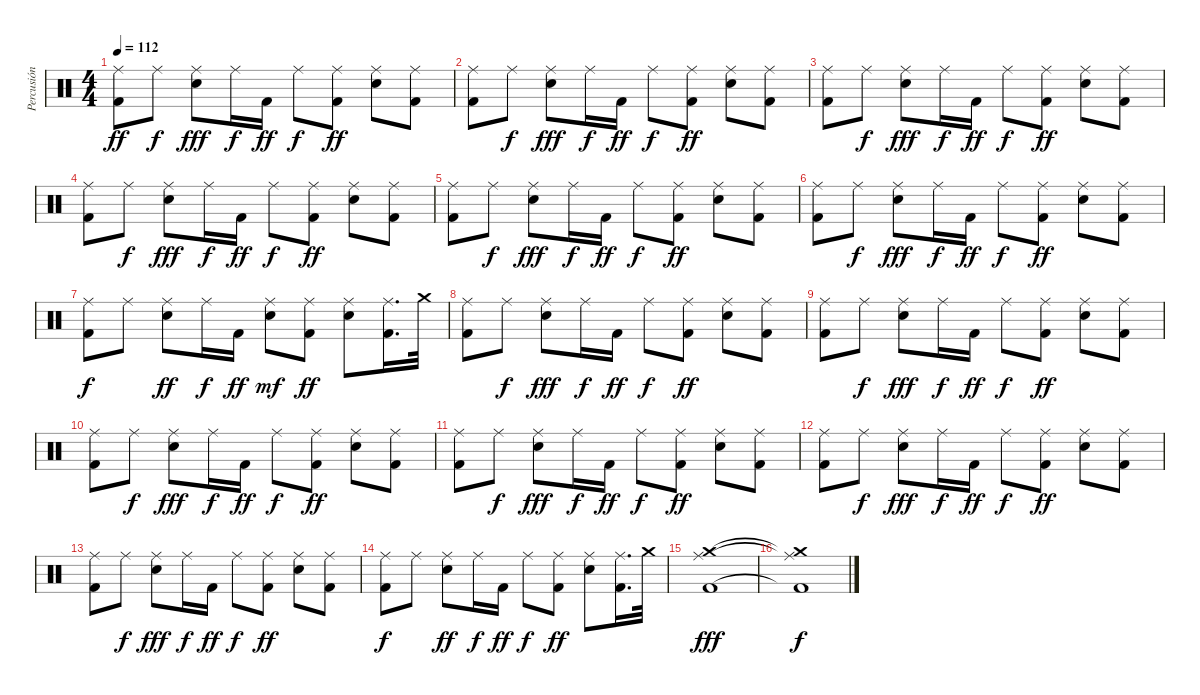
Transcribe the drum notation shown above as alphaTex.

\track ("Percusión" "Percusión") {instrument percussion}
\staff {score}
\articulation defaults
\ts (4 4)
\tempo 112
\clef neutral
\ks c
("Kick (hit) 2" "Ride (middle)").8{dy ff} "Ride (middle)".8{dy f} ("Snare (hit) 2" "Ride (middle)").8{dy fff} "Ride (middle)".16{dy f} "Kick (hit) 2".16{dy ff} "Ride (middle)".8{dy f} ("Kick (hit) 2" "Ride (middle)").8{dy ff} ("Snare (hit) 2" "Ride (middle)").8 ("Kick (hit) 2" "Ride (middle)").8 |
("Kick (hit) 2" "Ride (middle)").8 "Ride (middle)".8{dy f} ("Snare (hit) 2" "Ride (middle)").8{dy fff} "Ride (middle)".16{dy f} "Kick (hit) 2".16{dy ff} "Ride (middle)".8{dy f} ("Kick (hit) 2" "Ride (middle)").8{dy ff} ("Snare (hit) 2" "Ride (middle)").8 ("Kick (hit) 2" "Ride (middle)").8 |
("Kick (hit) 2" "Ride (middle)").8 "Ride (middle)".8{dy f} ("Snare (hit) 2" "Ride (middle)").8{dy fff} "Ride (middle)".16{dy f} "Kick (hit) 2".16{dy ff} "Ride (middle)".8{dy f} ("Kick (hit) 2" "Ride (middle)").8{dy ff} ("Snare (hit) 2" "Ride (middle)").8 ("Kick (hit) 2" "Ride (middle)").8 |
("Kick (hit) 2" "Ride (middle)").8 "Ride (middle)".8{dy f} ("Snare (hit) 2" "Ride (middle)").8{dy fff} "Ride (middle)".16{dy f} "Kick (hit) 2".16{dy ff} "Ride (middle)".8{dy f} ("Kick (hit) 2" "Ride (middle)").8{dy ff} ("Snare (hit) 2" "Ride (middle)").8 ("Kick (hit) 2" "Ride (middle)").8 |
("Kick (hit) 2" "Ride (middle)").8 "Ride (middle)".8{dy f} ("Snare (hit) 2" "Ride (middle)").8{dy fff} "Ride (middle)".16{dy f} "Kick (hit) 2".16{dy ff} "Ride (middle)".8{dy f} ("Kick (hit) 2" "Ride (middle)").8{dy ff} ("Snare (hit) 2" "Ride (middle)").8 ("Kick (hit) 2" "Ride (middle)").8 |
("Kick (hit) 2" "Ride (middle)").8 "Ride (middle)".8{dy f} ("Snare (hit) 2" "Ride (middle)").8{dy fff} "Ride (middle)".16{dy f} "Kick (hit) 2".16{dy ff} "Ride (middle)".8{dy f} ("Kick (hit) 2" "Ride (middle)").8{dy ff} ("Snare (hit) 2" "Ride (middle)").8 ("Kick (hit) 2" "Ride (middle)").8 |
("Ride (middle)" "Kick (hit) 2").8{dy f} "Ride (middle)".8 ("Ride (middle)" "Snare (hit) 2").8{dy ff} "Ride (middle)".16{dy f} "Kick (hit) 2".16{dy ff} ("Snare (hit)" "Ride (middle)").8{dy mf} ("Ride (middle)" "Kick (hit) 2").8{dy ff} ("Ride (middle)" "Snare (hit) 2").8 ("Ride (middle)" "Kick (hit) 2").16{d} "Crash medium (hit)".32 |
("Kick (hit) 2" "Ride (middle)").8 "Ride (middle)".8{dy f} ("Snare (hit) 2" "Ride (middle)").8{dy fff} "Ride (middle)".16{dy f} "Kick (hit) 2".16{dy ff} "Ride (middle)".8{dy f} ("Kick (hit) 2" "Ride (middle)").8{dy ff} ("Snare (hit) 2" "Ride (middle)").8 ("Kick (hit) 2" "Ride (middle)").8 |
("Kick (hit) 2" "Ride (middle)").8 "Ride (middle)".8{dy f} ("Snare (hit) 2" "Ride (middle)").8{dy fff} "Ride (middle)".16{dy f} "Kick (hit) 2".16{dy ff} "Ride (middle)".8{dy f} ("Kick (hit) 2" "Ride (middle)").8{dy ff} ("Snare (hit) 2" "Ride (middle)").8 ("Kick (hit) 2" "Ride (middle)").8 |
("Kick (hit) 2" "Ride (middle)").8 "Ride (middle)".8{dy f} ("Snare (hit) 2" "Ride (middle)").8{dy fff} "Ride (middle)".16{dy f} "Kick (hit) 2".16{dy ff} "Ride (middle)".8{dy f} ("Kick (hit) 2" "Ride (middle)").8{dy ff} ("Snare (hit) 2" "Ride (middle)").8 ("Kick (hit) 2" "Ride (middle)").8 |
("Kick (hit) 2" "Ride (middle)").8 "Ride (middle)".8{dy f} ("Snare (hit) 2" "Ride (middle)").8{dy fff} "Ride (middle)".16{dy f} "Kick (hit) 2".16{dy ff} "Ride (middle)".8{dy f} ("Kick (hit) 2" "Ride (middle)").8{dy ff} ("Snare (hit) 2" "Ride (middle)").8 ("Kick (hit) 2" "Ride (middle)").8 |
("Kick (hit) 2" "Ride (middle)").8 "Ride (middle)".8{dy f} ("Snare (hit) 2" "Ride (middle)").8{dy fff} "Ride (middle)".16{dy f} "Kick (hit) 2".16{dy ff} "Ride (middle)".8{dy f} ("Kick (hit) 2" "Ride (middle)").8{dy ff} ("Snare (hit) 2" "Ride (middle)").8 ("Kick (hit) 2" "Ride (middle)").8 |
("Kick (hit) 2" "Ride (middle)").8 "Ride (middle)".8{dy f} ("Snare (hit) 2" "Ride (middle)").8{dy fff} "Ride (middle)".16{dy f} "Kick (hit) 2".16{dy ff} "Ride (middle)".8{dy f} ("Kick (hit) 2" "Ride (middle)").8{dy ff} ("Snare (hit) 2" "Ride (middle)").8 ("Kick (hit) 2" "Ride (middle)").8 |
("Ride (middle)" "Kick (hit) 2").8{dy f} "Ride (middle)".8 ("Ride (middle)" "Snare (hit) 2").8{dy ff} "Ride (middle)".16{dy f} "Kick (hit) 2".16{dy ff} "Ride (middle)".8{dy f} ("Ride (middle)" "Kick (hit) 2").8{dy ff} ("Ride (middle)" "Snare (hit) 2").8 ("Ride (middle)" "Kick (hit) 2").16{d} "Crash medium (hit)".32 |
("Kick (hit) 2" "Crash medium (hit)" "Ride (middle)").1{dy fff} |
("Kick (hit) 2"{t} "Crash medium (hit)"{t} "Ride (middle)"{t}).1{dy f}
